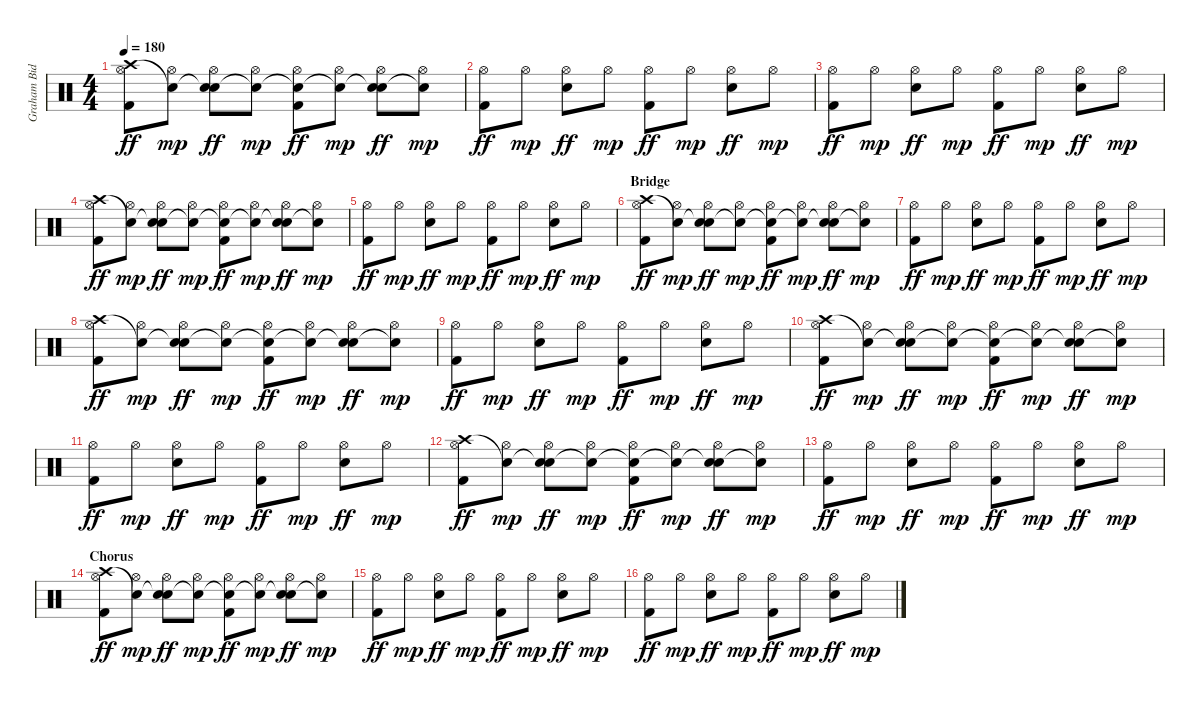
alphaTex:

\track ("Graham Bidstrup" "Graham Bid") {instrument percussion}
\staff {score}
\articulation defaults
\ts (4 4)
\tempo 180
\clef neutral
\ks c
("Crash high (hit)" "Hi-Hat (open)" "Kick (hit) 2").8{dy ff} ("Snare (hit)"{t} "Hi-Hat (open)").8{dy mp} ("Snare (hit)"{t} "Hi-Hat (open)" "Snare (hit) 2").8{dy ff} ("Snare (hit)"{t} "Hi-Hat (open)").8{dy mp} ("Snare (hit)"{t} "Hi-Hat (open)" "Kick (hit) 2").8{dy ff} ("Snare (hit)"{t} "Hi-Hat (open)").8{dy mp} ("Snare (hit)"{t} "Hi-Hat (open)" "Snare (hit) 2").8{dy ff} ("Snare (hit)"{t} "Hi-Hat (open)").8{dy mp} |
("Hi-Hat (open)" "Kick (hit) 2").8{dy ff} "Hi-Hat (open)".8{dy mp} ("Hi-Hat (open)" "Snare (hit) 2").8{dy ff} "Hi-Hat (open)".8{dy mp} ("Hi-Hat (open)" "Kick (hit) 2").8{dy ff} "Hi-Hat (open)".8{dy mp} ("Hi-Hat (open)" "Snare (hit) 2").8{dy ff} "Hi-Hat (open)".8{dy mp} |
("Hi-Hat (open)" "Kick (hit) 2").8{dy ff} "Hi-Hat (open)".8{dy mp} ("Hi-Hat (open)" "Snare (hit) 2").8{dy ff} "Hi-Hat (open)".8{dy mp} ("Hi-Hat (open)" "Kick (hit) 2").8{dy ff} "Hi-Hat (open)".8{dy mp} ("Hi-Hat (open)" "Snare (hit) 2").8{dy ff} "Hi-Hat (open)".8{dy mp} |
("Crash high (hit)" "Hi-Hat (open)" "Kick (hit) 2").8{dy ff} ("Snare (hit)"{t} "Hi-Hat (open)").8{dy mp} ("Snare (hit)"{t} "Hi-Hat (open)" "Snare (hit) 2").8{dy ff} ("Snare (hit)"{t} "Hi-Hat (open)").8{dy mp} ("Snare (hit)"{t} "Hi-Hat (open)" "Kick (hit) 2").8{dy ff} ("Snare (hit)"{t} "Hi-Hat (open)").8{dy mp} ("Snare (hit)"{t} "Hi-Hat (open)" "Snare (hit) 2").8{dy ff} ("Snare (hit)"{t} "Hi-Hat (open)").8{dy mp} |
("Hi-Hat (open)" "Kick (hit) 2").8{dy ff} "Hi-Hat (open)".8{dy mp} ("Hi-Hat (open)" "Snare (hit) 2").8{dy ff} "Hi-Hat (open)".8{dy mp} ("Hi-Hat (open)" "Kick (hit) 2").8{dy ff} "Hi-Hat (open)".8{dy mp} ("Hi-Hat (open)" "Snare (hit) 2").8{dy ff} "Hi-Hat (open)".8{dy mp} |
\section ("" "Bridge")
("Crash high (hit)" "Hi-Hat (open)" "Kick (hit) 2").8{dy ff} ("Snare (hit)"{t} "Hi-Hat (open)").8{dy mp} ("Snare (hit)"{t} "Hi-Hat (open)" "Snare (hit) 2").8{dy ff} ("Snare (hit)"{t} "Hi-Hat (open)").8{dy mp} ("Snare (hit)"{t} "Hi-Hat (open)" "Kick (hit) 2").8{dy ff} ("Snare (hit)"{t} "Hi-Hat (open)").8{dy mp} ("Snare (hit)"{t} "Hi-Hat (open)" "Snare (hit) 2").8{dy ff} ("Snare (hit)"{t} "Hi-Hat (open)").8{dy mp} |
("Hi-Hat (open)" "Kick (hit) 2").8{dy ff} "Hi-Hat (open)".8{dy mp} ("Hi-Hat (open)" "Snare (hit) 2").8{dy ff} "Hi-Hat (open)".8{dy mp} ("Hi-Hat (open)" "Kick (hit) 2").8{dy ff} "Hi-Hat (open)".8{dy mp} ("Hi-Hat (open)" "Snare (hit) 2").8{dy ff} "Hi-Hat (open)".8{dy mp} |
("Crash high (hit)" "Hi-Hat (open)" "Kick (hit) 2").8{dy ff} ("Snare (hit)"{t} "Hi-Hat (open)").8{dy mp} ("Snare (hit)"{t} "Hi-Hat (open)" "Snare (hit) 2").8{dy ff} ("Snare (hit)"{t} "Hi-Hat (open)").8{dy mp} ("Snare (hit)"{t} "Hi-Hat (open)" "Kick (hit) 2").8{dy ff} ("Snare (hit)"{t} "Hi-Hat (open)").8{dy mp} ("Snare (hit)"{t} "Hi-Hat (open)" "Snare (hit) 2").8{dy ff} ("Snare (hit)"{t} "Hi-Hat (open)").8{dy mp} |
("Hi-Hat (open)" "Kick (hit) 2").8{dy ff} "Hi-Hat (open)".8{dy mp} ("Hi-Hat (open)" "Snare (hit) 2").8{dy ff} "Hi-Hat (open)".8{dy mp} ("Hi-Hat (open)" "Kick (hit) 2").8{dy ff} "Hi-Hat (open)".8{dy mp} ("Hi-Hat (open)" "Snare (hit) 2").8{dy ff} "Hi-Hat (open)".8{dy mp} |
("Crash high (hit)" "Hi-Hat (open)" "Kick (hit) 2").8{dy ff} ("Snare (hit)"{t} "Hi-Hat (open)").8{dy mp} ("Snare (hit)"{t} "Hi-Hat (open)" "Snare (hit) 2").8{dy ff} ("Snare (hit)"{t} "Hi-Hat (open)").8{dy mp} ("Snare (hit)"{t} "Hi-Hat (open)" "Kick (hit) 2").8{dy ff} ("Snare (hit)"{t} "Hi-Hat (open)").8{dy mp} ("Snare (hit)"{t} "Hi-Hat (open)" "Snare (hit) 2").8{dy ff} ("Snare (hit)"{t} "Hi-Hat (open)").8{dy mp} |
("Hi-Hat (open)" "Kick (hit) 2").8{dy ff} "Hi-Hat (open)".8{dy mp} ("Hi-Hat (open)" "Snare (hit) 2").8{dy ff} "Hi-Hat (open)".8{dy mp} ("Hi-Hat (open)" "Kick (hit) 2").8{dy ff} "Hi-Hat (open)".8{dy mp} ("Hi-Hat (open)" "Snare (hit) 2").8{dy ff} "Hi-Hat (open)".8{dy mp} |
("Crash high (hit)" "Hi-Hat (open)" "Kick (hit) 2").8{dy ff} ("Snare (hit)"{t} "Hi-Hat (open)").8{dy mp} ("Snare (hit)"{t} "Hi-Hat (open)" "Snare (hit) 2").8{dy ff} ("Snare (hit)"{t} "Hi-Hat (open)").8{dy mp} ("Snare (hit)"{t} "Hi-Hat (open)" "Kick (hit) 2").8{dy ff} ("Snare (hit)"{t} "Hi-Hat (open)").8{dy mp} ("Snare (hit)"{t} "Hi-Hat (open)" "Snare (hit) 2").8{dy ff} ("Snare (hit)"{t} "Hi-Hat (open)").8{dy mp} |
("Hi-Hat (open)" "Kick (hit) 2").8{dy ff} "Hi-Hat (open)".8{dy mp} ("Hi-Hat (open)" "Snare (hit) 2").8{dy ff} "Hi-Hat (open)".8{dy mp} ("Hi-Hat (open)" "Kick (hit) 2").8{dy ff} "Hi-Hat (open)".8{dy mp} ("Hi-Hat (open)" "Snare (hit) 2").8{dy ff} "Hi-Hat (open)".8{dy mp} |
\section ("" "Chorus")
("Crash high (hit)" "Hi-Hat (open)" "Kick (hit) 2").8{dy ff} ("Snare (hit)"{t} "Hi-Hat (open)").8{dy mp} ("Snare (hit)"{t} "Hi-Hat (open)" "Snare (hit) 2").8{dy ff} ("Snare (hit)"{t} "Hi-Hat (open)").8{dy mp} ("Snare (hit)"{t} "Hi-Hat (open)" "Kick (hit) 2").8{dy ff} ("Snare (hit)"{t} "Hi-Hat (open)").8{dy mp} ("Snare (hit)"{t} "Hi-Hat (open)" "Snare (hit) 2").8{dy ff} ("Snare (hit)"{t} "Hi-Hat (open)").8{dy mp} |
("Hi-Hat (open)" "Kick (hit) 2").8{dy ff} "Hi-Hat (open)".8{dy mp} ("Hi-Hat (open)" "Snare (hit) 2").8{dy ff} "Hi-Hat (open)".8{dy mp} ("Hi-Hat (open)" "Kick (hit) 2").8{dy ff} "Hi-Hat (open)".8{dy mp} ("Hi-Hat (open)" "Snare (hit) 2").8{dy ff} "Hi-Hat (open)".8{dy mp} |
("Hi-Hat (open)" "Kick (hit) 2").8{dy ff} "Hi-Hat (open)".8{dy mp} ("Hi-Hat (open)" "Snare (hit) 2").8{dy ff} "Hi-Hat (open)".8{dy mp} ("Hi-Hat (open)" "Kick (hit) 2").8{dy ff} "Hi-Hat (open)".8{dy mp} ("Hi-Hat (open)" "Snare (hit) 2").8{dy ff} "Hi-Hat (open)".8{dy mp}
